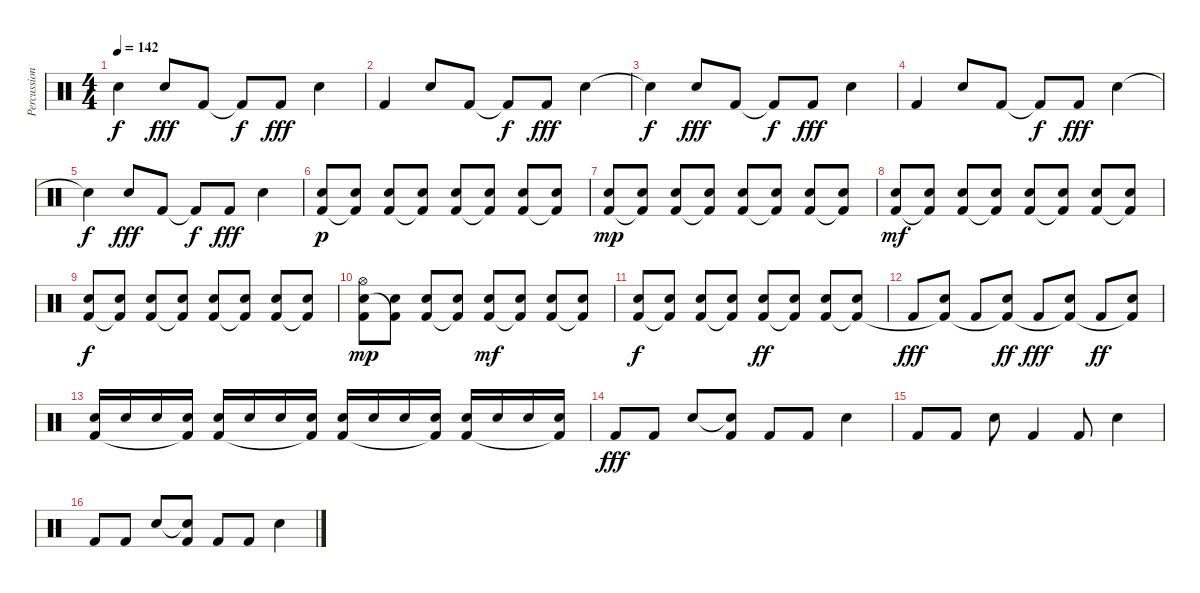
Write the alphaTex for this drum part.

\track ("Percussion" "Percussion") {instrument percussion}
\staff {score}
\articulation defaults
\ts (4 4)
\tempo 142
\clef neutral
\ks c "Snare (hit) 2"{t}.4{dy f} "Snare (hit) 2".8{dy fff} "Kick (hit) 2".8 "Kick (hit) 2"{t}.8{dy f} "Kick (hit) 2".8{dy fff} "Snare (hit) 2".4
|
"Kick (hit) 2".4 "Snare (hit) 2".8 "Kick (hit) 2".8 "Kick (hit) 2"{t}.8{dy f} "Kick (hit) 2".8{dy fff} "Snare (hit) 2".4 |
"Snare (hit) 2"{t}.4{dy f} "Snare (hit) 2".8{dy fff} "Kick (hit) 2".8 "Kick (hit) 2"{t}.8{dy f} "Kick (hit) 2".8{dy fff} "Snare (hit) 2".4 |
"Kick (hit) 2".4 "Snare (hit) 2".8 "Kick (hit) 2".8 "Kick (hit) 2"{t}.8{dy f} "Kick (hit) 2".8{dy fff} "Snare (hit) 2".4 |
"Snare (hit) 2"{t}.4{dy f} "Snare (hit) 2".8{dy fff} "Kick (hit) 2".8 "Kick (hit) 2"{t}.8{dy f} "Kick (hit) 2".8{dy fff} "Snare (hit) 2".4 |
("Snare (hit) 2" "Kick (hit) 2").8{dy p} ("Snare (hit) 2" "Kick (hit) 2"{t}).8 ("Snare (hit) 2" "Kick (hit) 2").8 ("Snare (hit) 2" "Kick (hit) 2"{t}).8 ("Snare (hit) 2" "Kick (hit) 2").8 ("Snare (hit) 2" "Kick (hit) 2"{t}).8 ("Snare (hit) 2" "Kick (hit) 2").8 ("Snare (hit) 2" "Kick (hit) 2"{t}).8 |
("Snare (hit) 2" "Kick (hit) 2").8{dy mp} ("Snare (hit) 2" "Kick (hit) 2"{t}).8 ("Snare (hit) 2" "Kick (hit) 2").8 ("Snare (hit) 2" "Kick (hit) 2"{t}).8 ("Snare (hit) 2" "Kick (hit) 2").8 ("Snare (hit) 2" "Kick (hit) 2"{t}).8 ("Snare (hit) 2" "Kick (hit) 2").8 ("Snare (hit) 2" "Kick (hit) 2"{t}).8 |
("Snare (hit) 2" "Kick (hit) 2").8{dy mf} ("Snare (hit) 2" "Kick (hit) 2"{t}).8 ("Snare (hit) 2" "Kick (hit) 2").8 ("Snare (hit) 2" "Kick (hit) 2"{t}).8 ("Snare (hit) 2" "Kick (hit) 2").8 ("Snare (hit) 2" "Kick (hit) 2"{t}).8 ("Snare (hit) 2" "Kick (hit) 2").8 ("Snare (hit) 2" "Kick (hit) 2"{t}).8 |
("Snare (hit) 2" "Kick (hit) 2").8{dy f} ("Snare (hit) 2" "Kick (hit) 2"{t}).8 ("Snare (hit) 2" "Kick (hit) 2").8 ("Snare (hit) 2" "Kick (hit) 2"{t}).8 ("Snare (hit) 2" "Kick (hit) 2").8 ("Snare (hit) 2" "Kick (hit) 2"{t}).8 ("Snare (hit) 2" "Kick (hit) 2").8 ("Snare (hit) 2" "Kick (hit) 2"{t}).8 |
("Hi-Hat (open)" "Snare (hit) 2" "Kick (hit) 2").8{dy mp} ("Snare (hit) 2" "Kick (hit) 2"{t}).8 ("Snare (hit) 2" "Kick (hit) 2").8 ("Snare (hit) 2" "Kick (hit) 2"{t}).8 ("Snare (hit) 2" "Kick (hit) 2").8{dy mf} ("Snare (hit) 2" "Kick (hit) 2"{t}).8 ("Snare (hit) 2" "Kick (hit) 2").8 ("Snare (hit) 2" "Kick (hit) 2"{t}).8 |
("Snare (hit) 2" "Kick (hit) 2").8{dy f} ("Snare (hit) 2" "Kick (hit) 2"{t}).8 ("Snare (hit) 2" "Kick (hit) 2").8 ("Snare (hit) 2" "Kick (hit) 2"{t}).8 ("Snare (hit) 2" "Kick (hit) 2").8{dy ff} ("Snare (hit) 2" "Kick (hit) 2"{t}).8 ("Snare (hit) 2" "Kick (hit) 2").8 ("Snare (hit) 2" "Kick (hit) 2"{t}).8 |
"Kick (hit) 2".8{dy fff} ("Snare (hit) 2" "Kick (hit) 2"{t}).8 "Kick (hit) 2".8 ("Snare (hit) 2" "Kick (hit) 2"{t}).8{dy ff} "Kick (hit) 2".8{dy fff} ("Snare (hit) 2" "Kick (hit) 2"{t}).8 "Kick (hit) 2".8{dy ff} ("Snare (hit) 2" "Kick (hit) 2"{t}).8 |
("Snare (hit) 2" "Kick (hit) 2").16 "Snare (hit) 2".16 "Snare (hit) 2".16 ("Snare (hit) 2" "Kick (hit) 2"{t}).16 ("Snare (hit) 2" "Kick (hit) 2").16 "Snare (hit) 2".16 "Snare (hit) 2".16 ("Snare (hit) 2" "Kick (hit) 2"{t}).16 ("Snare (hit) 2" "Kick (hit) 2").16 "Snare (hit) 2".16 "Snare (hit) 2".16 ("Snare (hit) 2" "Kick (hit) 2"{t}).16 ("Snare (hit) 2" "Kick (hit) 2").16 "Snare (hit) 2".16 "Snare (hit) 2".16 ("Snare (hit) 2" "Kick (hit) 2"{t}).16 |
"Kick (hit) 2".8{dy fff} "Kick (hit) 2".8 "Snare (hit) 2".8 ("Snare (hit) 2"{t} "Kick (hit) 2").8 "Kick (hit) 2".8 "Kick (hit) 2".8 "Snare (hit) 2".4 |
"Kick (hit) 2".8 "Kick (hit) 2".8 "Snare (hit) 2".8 "Kick (hit) 2".4 "Kick (hit) 2".8 "Snare (hit) 2".4 |
"Kick (hit) 2".8 "Kick (hit) 2".8 "Snare (hit) 2".8 ("Snare (hit) 2"{t} "Kick (hit) 2").8 "Kick (hit) 2".8 "Kick (hit) 2".8 "Snare (hit) 2".4
